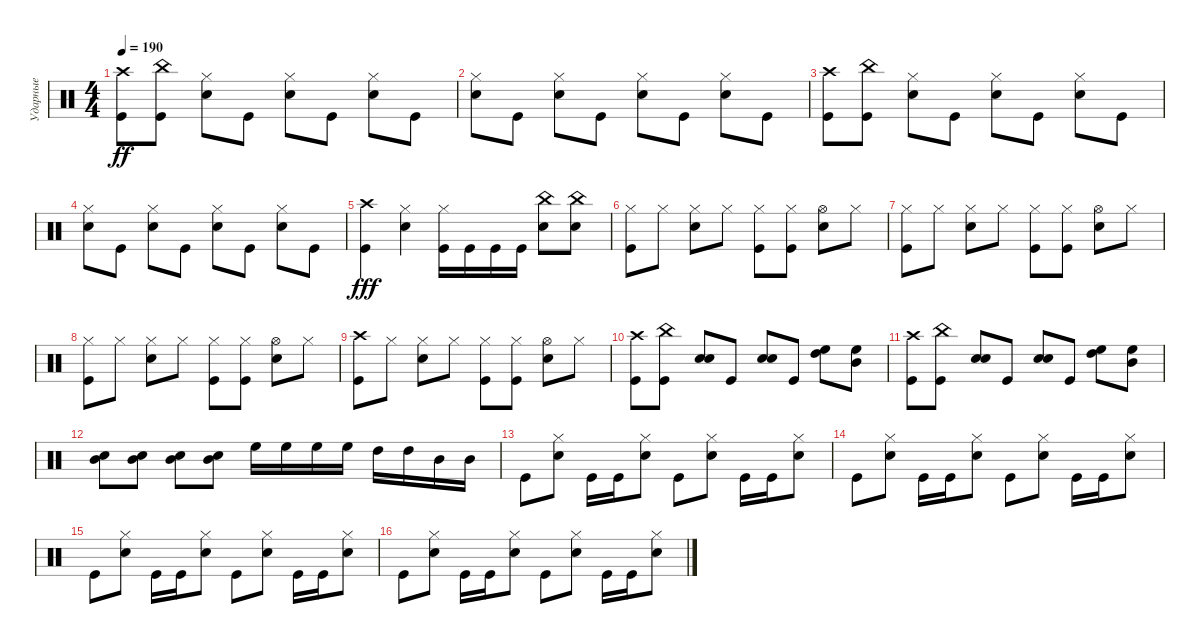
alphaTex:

\track ("Ударные" "Ударные") {instrument percussion}
\staff {score}
\articulation defaults
\ts (4 4)
\tempo 190
\clef neutral
\ks c
("Crash high (hit)" "Kick (hit)").8{dy ff} ("China (hit)" "Kick (hit)").8 ("Hi-Hat (closed)" "Snare (hit) 2").8 "Kick (hit)".8 ("Hi-Hat (closed)" "Snare (hit) 2").8 "Kick (hit)".8 ("Snare (hit) 2" "Hi-Hat (closed)").8 "Kick (hit)".8 |
("Hi-Hat (closed)" "Snare (hit) 2").8 "Kick (hit)".8 ("Hi-Hat (closed)" "Snare (hit) 2").8 "Kick (hit)".8 ("Hi-Hat (closed)" "Snare (hit) 2").8 "Kick (hit)".8 ("Hi-Hat (closed)" "Snare (hit) 2").8 "Kick (hit)".8 |
("Crash high (hit)" "Kick (hit)").8 ("China (hit)" "Kick (hit)").8 ("Hi-Hat (closed)" "Snare (hit) 2").8 "Kick (hit)".8 ("Hi-Hat (closed)" "Snare (hit) 2").8 "Kick (hit)".8 ("Snare (hit) 2" "Hi-Hat (closed)").8 "Kick (hit)".8 |
("Hi-Hat (closed)" "Snare (hit) 2").8 "Kick (hit)".8 ("Hi-Hat (closed)" "Snare (hit) 2").8 "Kick (hit)".8 ("Hi-Hat (closed)" "Snare (hit) 2").8 "Kick (hit)".8 ("Hi-Hat (closed)" "Snare (hit) 2").8 "Kick (hit)".8 |
("Crash high (hit)" "Kick (hit)").4{dy fff} ("Hi-Hat (closed)" "Snare (hit) 2").4 ("Hi-Hat (closed)" "Kick (hit)").16 "Kick (hit)".16 "Kick (hit)".16 "Kick (hit)".16 ("China (hit)" "Snare (hit) 2").8 ("Snare (hit) 2" "China (hit)").8 |
("Hi-Hat (closed)" "Kick (hit)").8 "Hi-Hat (closed)".8 ("Hi-Hat (closed)" "Snare (hit) 2").8 "Hi-Hat (closed)".8 ("Hi-Hat (closed)" "Kick (hit)").8 ("Hi-Hat (closed)" "Kick (hit)").8 ("Hi-Hat (open)" "Snare (hit) 2").8 "Hi-Hat (closed)".8 |
("Hi-Hat (closed)" "Kick (hit)").8 "Hi-Hat (closed)".8 ("Hi-Hat (closed)" "Snare (hit) 2").8 "Hi-Hat (closed)".8 ("Hi-Hat (closed)" "Kick (hit)").8 ("Hi-Hat (closed)" "Kick (hit)").8 ("Hi-Hat (open)" "Snare (hit) 2").8 "Hi-Hat (closed)".8 |
("Hi-Hat (closed)" "Kick (hit)").8 "Hi-Hat (closed)".8 ("Hi-Hat (closed)" "Snare (hit) 2").8 "Hi-Hat (closed)".8 ("Hi-Hat (closed)" "Kick (hit)").8 ("Hi-Hat (closed)" "Kick (hit)").8 ("Hi-Hat (open)" "Snare (hit) 2").8 "Hi-Hat (closed)".8 |
("Crash high (hit)" "Kick (hit)").8 "Hi-Hat (closed)".8 ("Hi-Hat (closed)" "Snare (hit) 2").8 "Hi-Hat (closed)".8 ("Hi-Hat (closed)" "Kick (hit)").8 ("Hi-Hat (closed)" "Kick (hit)").8 ("Hi-Hat (open)" "Snare (hit) 2").8 "Hi-Hat (closed)".8 |
("Kick (hit)" "Crash high (hit)").8 ("Kick (hit)" "China (hit)").8 ("Snare (hit) 2" "Snare (hit) 2").8 "Kick (hit)".8 ("Snare (hit) 2" "Snare (hit) 2").8 "Kick (hit)".8 ("High Floor Tom (hit)" "High Tom (hit)").8 ("Mid Tom (hit)" "High Floor Tom (hit)").8 |
("Kick (hit)" "Crash high (hit)").8 ("Kick (hit)" "China (hit)").8 ("Snare (hit) 2" "Snare (hit) 2").8 "Kick (hit)".8 ("Snare (hit) 2" "Snare (hit) 2").8 "Kick (hit)".8 ("High Floor Tom (hit)" "High Tom (hit)").8 ("Mid Tom (hit)" "High Floor Tom (hit)").8 |
("Snare (hit) 2" "Mid Tom (hit)").8 ("Snare (hit) 2" "Mid Tom (hit)").8 ("Snare (hit) 2" "Mid Tom (hit)").8 ("Snare (hit) 2" "Mid Tom (hit)").8 "High Floor Tom (hit)".16 "High Floor Tom (hit)".16 "High Floor Tom (hit)".16 "High Floor Tom (hit)".16 "High Tom (hit)".16 "High Tom (hit)".16 "Mid Tom (hit)".16 "Mid Tom (hit)".16 |
"Kick (hit)".8 ("Snare (hit) 2" "Hi-Hat (closed)").8 "Kick (hit)".16 "Kick (hit)".16 ("Snare (hit) 2" "Hi-Hat (closed)").8 "Kick (hit)".8 ("Snare (hit) 2" "Hi-Hat (closed)").8 "Kick (hit)".16 "Kick (hit)".16 ("Snare (hit) 2" "Hi-Hat (closed)").8 |
"Kick (hit)".8 ("Snare (hit) 2" "Hi-Hat (closed)").8 "Kick (hit)".16 "Kick (hit)".16 ("Snare (hit) 2" "Hi-Hat (closed)").8 "Kick (hit)".8 ("Snare (hit) 2" "Hi-Hat (closed)").8 "Kick (hit)".16 "Kick (hit)".16 ("Snare (hit) 2" "Hi-Hat (closed)").8 |
"Kick (hit)".8 ("Snare (hit) 2" "Hi-Hat (closed)").8 "Kick (hit)".16 "Kick (hit)".16 ("Snare (hit) 2" "Hi-Hat (closed)").8 "Kick (hit)".8 ("Snare (hit) 2" "Hi-Hat (closed)").8 "Kick (hit)".16 "Kick (hit)".16 ("Snare (hit) 2" "Hi-Hat (closed)").8 |
"Kick (hit)".8 ("Snare (hit) 2" "Hi-Hat (closed)").8 "Kick (hit)".16 "Kick (hit)".16 ("Snare (hit) 2" "Hi-Hat (closed)").8 "Kick (hit)".8 ("Snare (hit) 2" "Hi-Hat (closed)").8 "Kick (hit)".16 "Kick (hit)".16 ("Snare (hit) 2" "Hi-Hat (closed)").8
